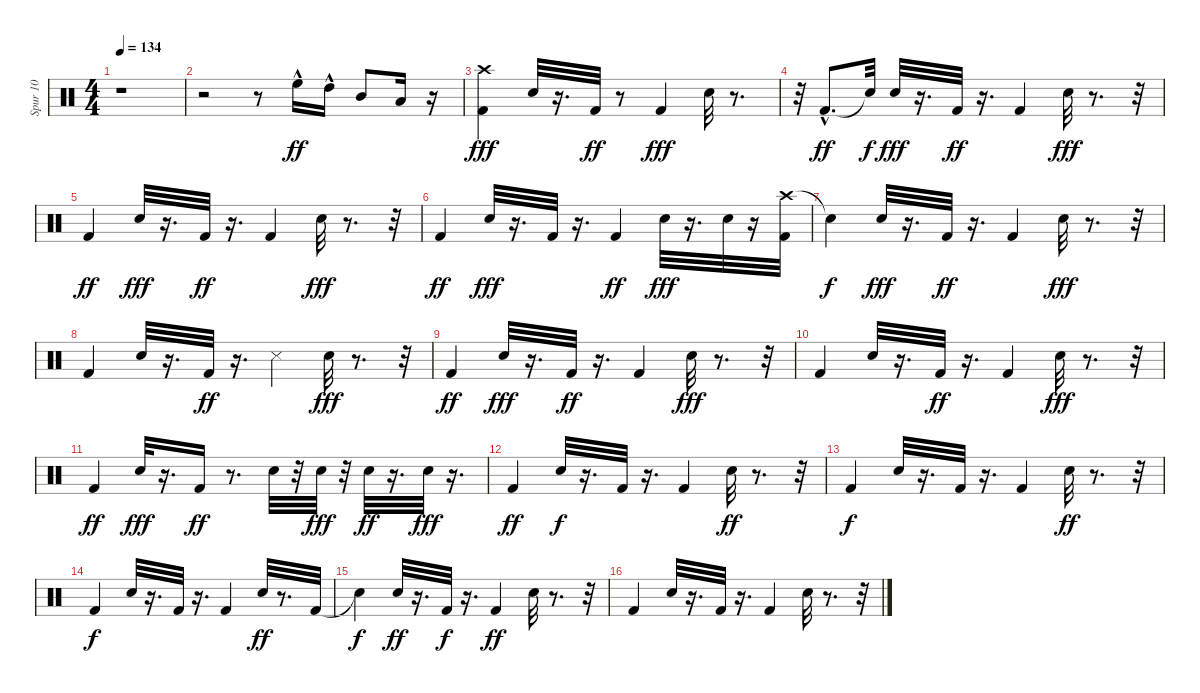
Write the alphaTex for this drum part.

\track ("Spur 10" "Spur 10") {instrument percussion}
\staff {score}
\articulation defaults
\ts (4 4)
\tempo 134
\clef neutral
\ks c
r.1{dy ff} |
r.2 r.8 "High Floor Tom (hit)"{hac}.16 "High Tom (hit)"{hac}.16 "Mid Tom (hit)".8 "Low Tom (hit)".16 r.16 |
("Crash high (hit)" "Kick (hit) 2").4{dy fff} "Electric Snare (hit)".32 r.16{d} "Kick (hit) 2".32{dy ff} r.8 "Kick (hit) 2".4{dy fff} "Electric Snare (hit)".32 r.8{d} |
r.32 "Kick (hit) 2"{hac}.8{d dy ff} "Snare (hit)"{t}.32{dy f} "Electric Snare (hit)".32{dy fff} r.16{d} "Kick (hit) 2".32{dy ff} r.16{d} "Kick (hit) 2".4 "Electric Snare (hit)".32{dy fff} r.8{d} r.32 |
"Kick (hit) 2".4{dy ff} "Electric Snare (hit)".32{dy fff} r.16{d} "Kick (hit) 2".32{dy ff} r.16{d} "Kick (hit) 2".4 "Electric Snare (hit)".32{dy fff} r.8{d} r.32 |
"Kick (hit) 2".4{dy ff} "Electric Snare (hit)".32{dy fff} r.16{d} "Kick (hit) 2".32 r.16{d} "Kick (hit) 2".4{dy ff} "Electric Snare (hit)".32{dy fff} r.16{d} "Electric Snare (hit)".32 r.16 ("Crash high (hit)" "Kick (hit) 2").32 |
"Snare (hit)"{t}.4{dy f} "Electric Snare (hit)".32{dy fff} r.16{d} "Kick (hit) 2".32{dy ff} r.16{d} "Kick (hit) 2".4 "Electric Snare (hit)".32{dy fff} r.8{d} r.32 |
"Kick (hit) 2".4 "Electric Snare (hit)".32 r.16{d} "Kick (hit) 2".32{dy ff} r.16{d} "Snare (side stick) 3".4 "Electric Snare (hit)".32{dy fff} r.8{d} r.32 |
"Kick (hit) 2".4{dy ff} "Electric Snare (hit)".32{dy fff} r.16{d} "Kick (hit) 2".32{dy ff} r.16{d} "Kick (hit) 2".4 "Electric Snare (hit)".32{dy fff} r.8{d} r.32 |
"Kick (hit) 2".4 "Electric Snare (hit)".32 r.16{d} "Kick (hit) 2".32{dy ff} r.16{d} "Kick (hit) 2".4 "Electric Snare (hit)".32{dy fff} r.8{d} r.32 |
"Kick (hit) 2".4{dy ff} "Electric Snare (hit)".32{dy fff} r.16{d} "Kick (hit) 2".16{dy ff} r.8{d} "Electric Snare (hit)".32 r.32 "Electric Snare (hit)".32{dy fff} r.32 "Electric Snare (hit)".32{dy ff} r.16{d} "Electric Snare (hit)".32{dy fff} r.16{d} |
"Kick (hit) 2".4{dy ff} "Electric Snare (hit)".32{dy f} r.16{d} "Kick (hit) 2".32 r.16{d} "Kick (hit) 2".4 "Electric Snare (hit)".32{dy ff} r.8{d} r.32 |
"Kick (hit) 2".4{dy f} "Electric Snare (hit)".32 r.16{d} "Kick (hit) 2".32 r.16{d} "Kick (hit) 2".4 "Electric Snare (hit)".32{dy ff} r.8{d} r.32 |
"Kick (hit) 2".4{dy f} "Electric Snare (hit)".32 r.16{d} "Kick (hit) 2".32 r.16{d} "Kick (hit) 2".4 "Electric Snare (hit)".32{dy ff} r.8{d} "Kick (hit) 2".32 |
"Snare (hit)"{t}.4{dy f} "Electric Snare (hit)".32{dy ff} r.16{d} "Kick (hit) 2".32{dy f} r.16{d} "Kick (hit) 2".4{dy ff} "Electric Snare (hit)".32 r.8{d} r.32 |
"Kick (hit) 2".4 "Electric Snare (hit)".32 r.16{d} "Kick (hit) 2".32 r.16{d} "Kick (hit) 2".4 "Electric Snare (hit)".32 r.8{d} r.32
